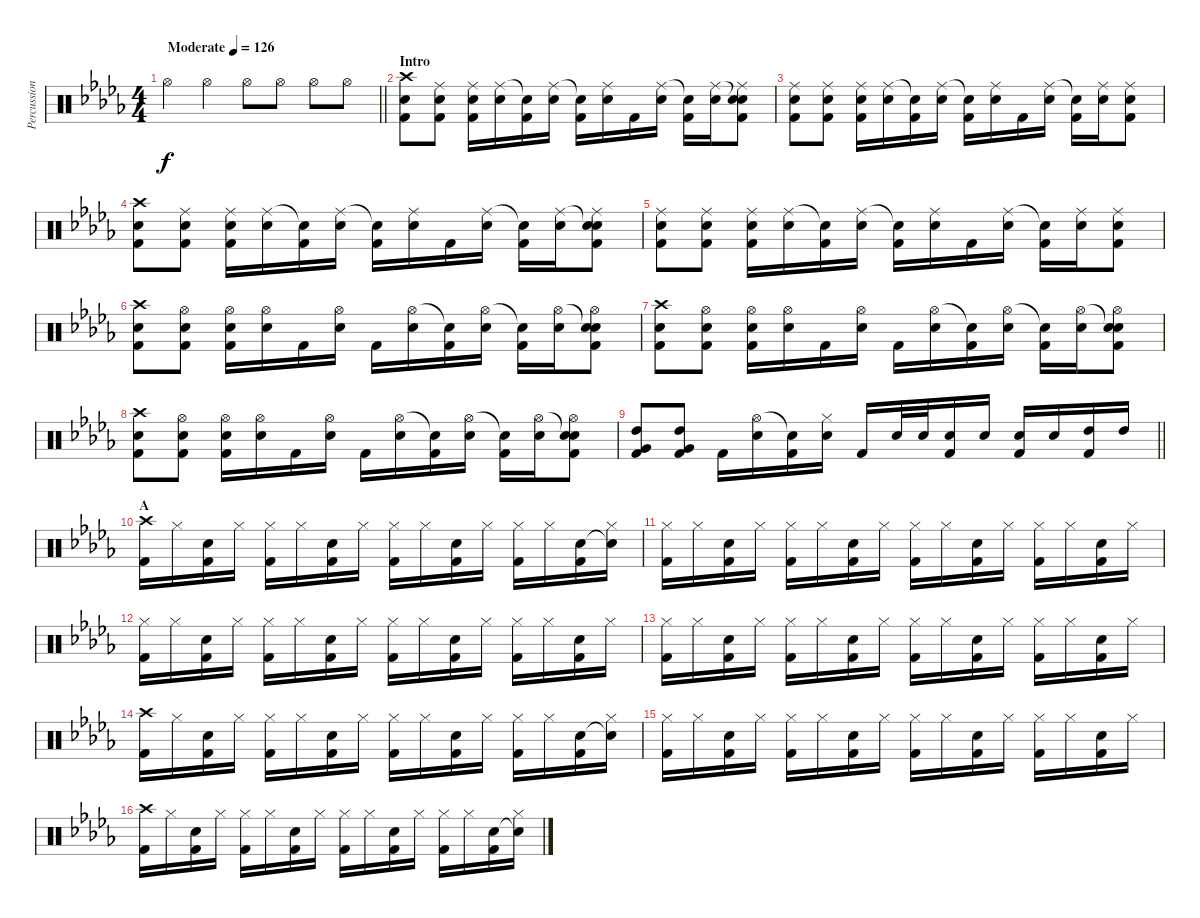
\track ("Percussion" "Percussion") {instrument percussion}
\staff {score}
\articulation defaults
\ts (4 4)
\tempo (126 "Moderate")
\clef neutral
\barLineRight lightlight
\ks db "Hi-Hat (open)".4{dy f} "Hi-Hat (open)".4 "Hi-Hat (open)".8 "Hi-Hat (open)".8 "Hi-Hat (open)".8 "Hi-Hat (open)".8
|
\section ("" "Intro")
("Crash high (hit)" "Electric Snare (hit)" "Kick (hit) 2").8 ("Electric Snare (hit)" "Kick (hit) 2" "Ride (middle)").8 ("Ride (middle)" "Electric Snare (hit)" "Kick (hit) 2").16 ("Ride (middle)" "Electric Snare (hit)").16 ("Snare (hit)"{t} "Kick (hit) 2").16 ("Ride (middle)" "Electric Snare (hit)").16 ("Snare (hit)"{t} "Kick (hit) 2").16 ("Ride (middle)" "Electric Snare (hit)").16 "Kick (hit) 2".16 ("Ride (middle)" "Electric Snare (hit)").16 ("Snare (hit)"{t} "Kick (hit) 2").16 ("Ride (middle)" "Electric Snare (hit)").16 ("Snare (hit)"{t} "Ride (middle)" "Electric Snare (hit)" "Kick (hit) 2").8 |
("Ride (middle)" "Electric Snare (hit)" "Kick (hit) 2").8 ("Electric Snare (hit)" "Kick (hit) 2" "Ride (middle)").8 ("Ride (middle)" "Electric Snare (hit)" "Kick (hit) 2").16 ("Ride (middle)" "Electric Snare (hit)").16 ("Snare (hit)"{t} "Kick (hit) 2").16 ("Ride (middle)" "Electric Snare (hit)").16 ("Snare (hit)"{t} "Kick (hit) 2").16 ("Ride (middle)" "Electric Snare (hit)").16 "Kick (hit) 2".16 ("Ride (middle)" "Electric Snare (hit)").16 ("Snare (hit)"{t} "Kick (hit) 2").16 ("Ride (middle)" "Electric Snare (hit)").16 ("Ride (middle)" "Electric Snare (hit)" "Kick (hit) 2").8 |
("Crash high (hit)" "Electric Snare (hit)" "Kick (hit) 2").8 ("Electric Snare (hit)" "Kick (hit) 2" "Ride (middle)").8 ("Ride (middle)" "Electric Snare (hit)" "Kick (hit) 2").16 ("Ride (middle)" "Electric Snare (hit)").16 ("Snare (hit)"{t} "Kick (hit) 2").16 ("Ride (middle)" "Electric Snare (hit)").16 ("Snare (hit)"{t} "Kick (hit) 2").16 ("Ride (middle)" "Electric Snare (hit)").16 "Kick (hit) 2".16 ("Ride (middle)" "Electric Snare (hit)").16 ("Snare (hit)"{t} "Kick (hit) 2").16 ("Ride (middle)" "Electric Snare (hit)").16 ("Snare (hit)"{t} "Ride (middle)" "Electric Snare (hit)" "Kick (hit) 2").8 |
("Ride (middle)" "Electric Snare (hit)" "Kick (hit) 2").8 ("Electric Snare (hit)" "Kick (hit) 2" "Ride (middle)").8 ("Ride (middle)" "Electric Snare (hit)" "Kick (hit) 2").16 ("Ride (middle)" "Electric Snare (hit)").16 ("Snare (hit)"{t} "Kick (hit) 2").16 ("Ride (middle)" "Electric Snare (hit)").16 ("Snare (hit)"{t} "Kick (hit) 2").16 ("Ride (middle)" "Electric Snare (hit)").16 "Kick (hit) 2".16 ("Ride (middle)" "Electric Snare (hit)").16 ("Snare (hit)"{t} "Kick (hit) 2").16 ("Ride (middle)" "Electric Snare (hit)").16 ("Ride (middle)" "Electric Snare (hit)" "Kick (hit) 2").8 |
("Crash high (hit)" "Electric Snare (hit)" "Kick (hit) 2").8 ("Electric Snare (hit)" "Kick (hit) 2" "Hi-Hat (open)").8 ("Hi-Hat (open)" "Electric Snare (hit)" "Kick (hit) 2").16 ("Hi-Hat (open)" "Electric Snare (hit)").16 "Kick (hit) 2".16 ("Hi-Hat (open)" "Electric Snare (hit)").16 "Kick (hit) 2".16 ("Hi-Hat (open)" "Electric Snare (hit)").16 ("Snare (hit)"{t} "Kick (hit) 2").16 ("Hi-Hat (open)" "Electric Snare (hit)").16 ("Snare (hit)"{t} "Kick (hit) 2").16 ("Hi-Hat (open)" "Electric Snare (hit)").16 ("Snare (hit)"{t} "Hi-Hat (open)" "Electric Snare (hit)" "Kick (hit) 2").8 |
("Crash high (hit)" "Electric Snare (hit)" "Kick (hit) 2").8 ("Electric Snare (hit)" "Kick (hit) 2" "Hi-Hat (open)").8 ("Hi-Hat (open)" "Electric Snare (hit)" "Kick (hit) 2").16 ("Hi-Hat (open)" "Electric Snare (hit)").16 "Kick (hit) 2".16 ("Hi-Hat (open)" "Electric Snare (hit)").16 "Kick (hit) 2".16 ("Hi-Hat (open)" "Electric Snare (hit)").16 ("Snare (hit)"{t} "Kick (hit) 2").16 ("Hi-Hat (open)" "Electric Snare (hit)").16 ("Snare (hit)"{t} "Kick (hit) 2").16 ("Hi-Hat (open)" "Electric Snare (hit)").16 ("Snare (hit)"{t} "Hi-Hat (open)" "Electric Snare (hit)" "Kick (hit) 2").8 |
("Crash high (hit)" "Electric Snare (hit)" "Kick (hit) 2").8 ("Electric Snare (hit)" "Kick (hit) 2" "Hi-Hat (open)").8 ("Hi-Hat (open)" "Electric Snare (hit)" "Kick (hit) 2").16 ("Hi-Hat (open)" "Electric Snare (hit)").16 "Kick (hit) 2".16 ("Hi-Hat (open)" "Electric Snare (hit)").16 "Kick (hit) 2".16 ("Hi-Hat (open)" "Electric Snare (hit)").16 ("Snare (hit)"{t} "Kick (hit) 2").16 ("Hi-Hat (open)" "Electric Snare (hit)").16 ("Snare (hit)"{t} "Kick (hit) 2").16 ("Hi-Hat (open)" "Electric Snare (hit)").16 ("Snare (hit)"{t} "Hi-Hat (open)" "Electric Snare (hit)" "Kick (hit) 2").8 |
\barLineRight lightlight
("High Tom (hit)" "Very Low Tom (hit)" "Kick (hit) 2").8 ("High Tom (hit)" "Very Low Tom (hit)" "Kick (hit) 2").8 "Kick (hit) 2".16 ("Hi-Hat (open)" "Electric Snare (hit)").16 ("Snare (hit)"{t} "Kick (hit) 2").16 ("Hi-Hat (closed)" "Electric Snare (hit)").16 "Kick (hit) 2".16 "Electric Snare (hit)".32 "Electric Snare (hit)".32 ("Electric Snare (hit)" "Kick (hit) 2").16 "Electric Snare (hit)".16 ("Electric Snare (hit)" "Kick (hit) 2").16 "Electric Snare (hit)".16 ("High Tom (hit)" "Kick (hit) 2").16 "High Tom (hit)".16 |
\section ("" "A")
("Crash high (hit)" "Kick (hit) 2").16 "Hi-Hat (closed)".16 ("Electric Snare (hit)" "Kick (hit) 2").16 "Hi-Hat (closed)".16 ("Hi-Hat (closed)" "Kick (hit) 2").16 "Hi-Hat (closed)".16 ("Electric Snare (hit)" "Kick (hit) 2").16 "Hi-Hat (closed)".16 ("Hi-Hat (closed)" "Kick (hit) 2").16 "Hi-Hat (closed)".16 ("Electric Snare (hit)" "Kick (hit) 2").16 "Hi-Hat (closed)".16 ("Hi-Hat (closed)" "Kick (hit) 2").16 "Hi-Hat (closed)".16 ("Electric Snare (hit)" "Kick (hit) 2").16 ("Snare (hit)"{t} "Hi-Hat (closed)").16 |
("Hi-Hat (closed)" "Kick (hit) 2").16 "Hi-Hat (closed)".16 ("Electric Snare (hit)" "Kick (hit) 2").16 "Hi-Hat (closed)".16 ("Hi-Hat (closed)" "Kick (hit) 2").16 "Hi-Hat (closed)".16 ("Electric Snare (hit)" "Kick (hit) 2").16 "Hi-Hat (closed)".16 ("Hi-Hat (closed)" "Kick (hit) 2").16 "Hi-Hat (closed)".16 ("Electric Snare (hit)" "Kick (hit) 2").16 "Hi-Hat (closed)".16 ("Hi-Hat (closed)" "Kick (hit) 2").16 "Hi-Hat (closed)".16 ("Electric Snare (hit)" "Kick (hit) 2").16 "Hi-Hat (closed)".16 |
("Hi-Hat (closed)" "Kick (hit) 2").16 "Hi-Hat (closed)".16 ("Electric Snare (hit)" "Kick (hit) 2").16 "Hi-Hat (closed)".16 ("Hi-Hat (closed)" "Kick (hit) 2").16 "Hi-Hat (closed)".16 ("Electric Snare (hit)" "Kick (hit) 2").16 "Hi-Hat (closed)".16 ("Hi-Hat (closed)" "Kick (hit) 2").16 "Hi-Hat (closed)".16 ("Electric Snare (hit)" "Kick (hit) 2").16 "Hi-Hat (closed)".16 ("Hi-Hat (closed)" "Kick (hit) 2").16 "Hi-Hat (closed)".16 ("Electric Snare (hit)" "Kick (hit) 2").16 "Hi-Hat (closed)".16 |
("Hi-Hat (closed)" "Kick (hit) 2").16 "Hi-Hat (closed)".16 ("Electric Snare (hit)" "Kick (hit) 2").16 "Hi-Hat (closed)".16 ("Hi-Hat (closed)" "Kick (hit) 2").16 "Hi-Hat (closed)".16 ("Electric Snare (hit)" "Kick (hit) 2").16 "Hi-Hat (closed)".16 ("Hi-Hat (closed)" "Kick (hit) 2").16 "Hi-Hat (closed)".16 ("Electric Snare (hit)" "Kick (hit) 2").16 "Hi-Hat (closed)".16 ("Hi-Hat (closed)" "Kick (hit) 2").16 "Hi-Hat (closed)".16 ("Electric Snare (hit)" "Kick (hit) 2").16 "Hi-Hat (closed)".16 |
("Crash high (hit)" "Kick (hit) 2").16 "Hi-Hat (closed)".16 ("Electric Snare (hit)" "Kick (hit) 2").16 "Hi-Hat (closed)".16 ("Hi-Hat (closed)" "Kick (hit) 2").16 "Hi-Hat (closed)".16 ("Electric Snare (hit)" "Kick (hit) 2").16 "Hi-Hat (closed)".16 ("Hi-Hat (closed)" "Kick (hit) 2").16 "Hi-Hat (closed)".16 ("Electric Snare (hit)" "Kick (hit) 2").16 "Hi-Hat (closed)".16 ("Hi-Hat (closed)" "Kick (hit) 2").16 "Hi-Hat (closed)".16 ("Electric Snare (hit)" "Kick (hit) 2").16 ("Snare (hit)"{t} "Hi-Hat (closed)").16 |
("Hi-Hat (closed)" "Kick (hit) 2").16 "Hi-Hat (closed)".16 ("Electric Snare (hit)" "Kick (hit) 2").16 "Hi-Hat (closed)".16 ("Hi-Hat (closed)" "Kick (hit) 2").16 "Hi-Hat (closed)".16 ("Electric Snare (hit)" "Kick (hit) 2").16 "Hi-Hat (closed)".16 ("Hi-Hat (closed)" "Kick (hit) 2").16 "Hi-Hat (closed)".16 ("Electric Snare (hit)" "Kick (hit) 2").16 "Hi-Hat (closed)".16 ("Hi-Hat (closed)" "Kick (hit) 2").16 "Hi-Hat (closed)".16 ("Electric Snare (hit)" "Kick (hit) 2").16 "Hi-Hat (closed)".16 |
("Crash high (hit)" "Kick (hit) 2").16 "Hi-Hat (closed)".16 ("Electric Snare (hit)" "Kick (hit) 2").16 "Hi-Hat (closed)".16 ("Hi-Hat (closed)" "Kick (hit) 2").16 "Hi-Hat (closed)".16 ("Electric Snare (hit)" "Kick (hit) 2").16 "Hi-Hat (closed)".16 ("Hi-Hat (closed)" "Kick (hit) 2").16 "Hi-Hat (closed)".16 ("Electric Snare (hit)" "Kick (hit) 2").16 "Hi-Hat (closed)".16 ("Hi-Hat (closed)" "Kick (hit) 2").16 "Hi-Hat (closed)".16 ("Electric Snare (hit)" "Kick (hit) 2").16 ("Snare (hit)"{t} "Hi-Hat (closed)").16
